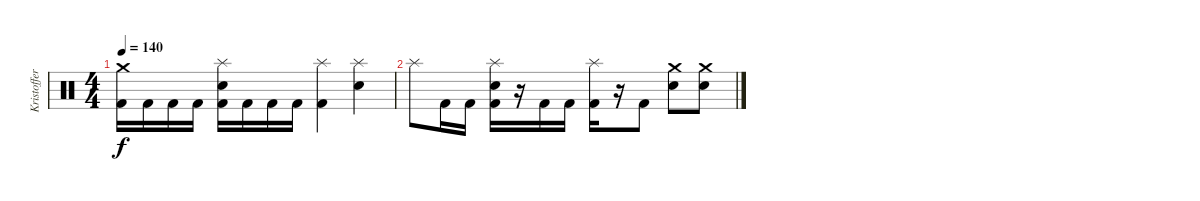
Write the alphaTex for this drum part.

\track ("Kristoffer (Drums)" "Kristoffer") {instrument percussion}
\staff {score}
\articulation defaults
\ts (4 4)
\tempo 140
\clef neutral
\ks c
("Kick (hit) 2" "Crash medium (hit)").16{dy f} "Kick (hit) 2".16 "Kick (hit) 2".16 "Kick (hit) 2".16 ("Kick (hit) 2" "Electric Snare (hit)" "Splash (hit)").16 "Kick (hit) 2".16 "Kick (hit) 2".16 "Kick (hit) 2".16 ("Kick (hit) 2" "Splash (hit)").4 ("Electric Snare (hit)" "Splash (hit)").4 |
"Splash (hit)".8 "Kick (hit) 2".16 "Kick (hit) 2".16 ("Kick (hit) 2" "Electric Snare (hit)" "Splash (hit)").16 r.16 "Kick (hit) 2".16 "Kick (hit) 2".16 ("Kick (hit) 2" "Splash (hit)").16 r.16 "Kick (hit) 2".8 ("Electric Snare (hit)" "Crash medium (hit)").8 ("Electric Snare (hit)" "Crash medium (hit)").8
